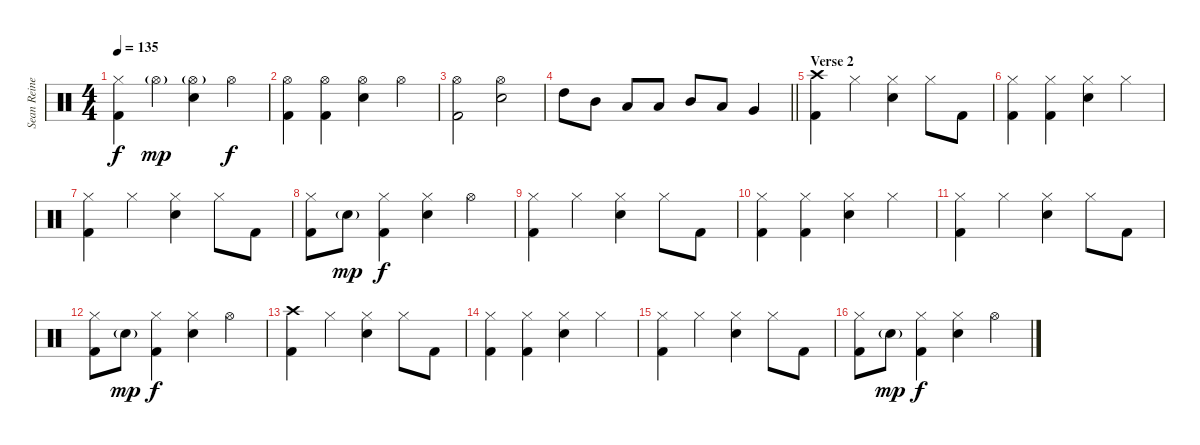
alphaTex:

\track ("Sean Reinert" "Sean Reine") {instrument percussion}
\staff {score}
\articulation defaults
\ts (4 4)
\tempo 135
\clef neutral
\ks c
("Hi-Hat (closed)" "Kick (hit) 2").4{dy f} "Hi-Hat (open)"{g}.4{dy mp} ("Hi-Hat (open)"{g} "Snare (hit) 2").4 "Hi-Hat (open)".4{dy f} |
("Hi-Hat (open)" "Kick (hit) 2").4 ("Hi-Hat (open)" "Kick (hit) 2").4 ("Hi-Hat (open)" "Snare (hit) 2").4 "Hi-Hat (open)".4 |
("Hi-Hat (open)" "Kick (hit) 2").2 ("Hi-Hat (open)" "Snare (hit) 2").2 |
\barLineRight lightlight "High Tom (hit)".8 "Mid Tom (hit)".8 "Low Tom (hit)".8 "Low Tom (hit)".8 "Mid Tom (hit)".8 "Low Tom (hit)".8 "Very Low Tom (hit)".4
|
\section ("" "Verse 2")
("Crash high (hit)" "Kick (hit) 2").4 "Hi-Hat (closed)".4 ("Hi-Hat (closed)" "Snare (hit) 2").4 "Hi-Hat (closed)".8 "Kick (hit) 2".8 |
("Hi-Hat (closed)" "Kick (hit) 2").4 ("Hi-Hat (closed)" "Kick (hit) 2").4 ("Hi-Hat (closed)" "Snare (hit) 2").4 "Hi-Hat (closed)".4 |
("Hi-Hat (closed)" "Kick (hit) 2").4 "Hi-Hat (closed)".4 ("Hi-Hat (closed)" "Snare (hit) 2").4 "Hi-Hat (closed)".8 "Kick (hit) 2".8 |
("Hi-Hat (closed)" "Kick (hit) 2").8 "Snare (hit) 2"{g}.8{dy mp} ("Hi-Hat (closed)" "Kick (hit) 2").4{dy f} ("Hi-Hat (closed)" "Snare (hit) 2").4 "Hi-Hat (open)".4 |
("Hi-Hat (closed)" "Kick (hit) 2").4 "Hi-Hat (closed)".4 ("Hi-Hat (closed)" "Snare (hit) 2").4 "Hi-Hat (closed)".8 "Kick (hit) 2".8 |
("Hi-Hat (closed)" "Kick (hit) 2").4 ("Hi-Hat (closed)" "Kick (hit) 2").4 ("Hi-Hat (closed)" "Snare (hit) 2").4 "Hi-Hat (closed)".4 |
("Hi-Hat (closed)" "Kick (hit) 2").4 "Hi-Hat (closed)".4 ("Hi-Hat (closed)" "Snare (hit) 2").4 "Hi-Hat (closed)".8 "Kick (hit) 2".8 |
("Hi-Hat (closed)" "Kick (hit) 2").8 "Snare (hit) 2"{g}.8{dy mp} ("Hi-Hat (closed)" "Kick (hit) 2").4{dy f} ("Hi-Hat (closed)" "Snare (hit) 2").4 "Hi-Hat (open)".4 |
("Crash high (hit)" "Kick (hit) 2").4 "Hi-Hat (closed)".4 ("Hi-Hat (closed)" "Snare (hit) 2").4 "Hi-Hat (closed)".8 "Kick (hit) 2".8 |
("Hi-Hat (closed)" "Kick (hit) 2").4 ("Hi-Hat (closed)" "Kick (hit) 2").4 ("Hi-Hat (closed)" "Snare (hit) 2").4 "Hi-Hat (closed)".4 |
("Hi-Hat (closed)" "Kick (hit) 2").4 "Hi-Hat (closed)".4 ("Hi-Hat (closed)" "Snare (hit) 2").4 "Hi-Hat (closed)".8 "Kick (hit) 2".8 |
("Hi-Hat (closed)" "Kick (hit) 2").8 "Snare (hit) 2"{g}.8{dy mp} ("Hi-Hat (closed)" "Kick (hit) 2").4{dy f} ("Hi-Hat (closed)" "Snare (hit) 2").4 "Hi-Hat (open)".4
